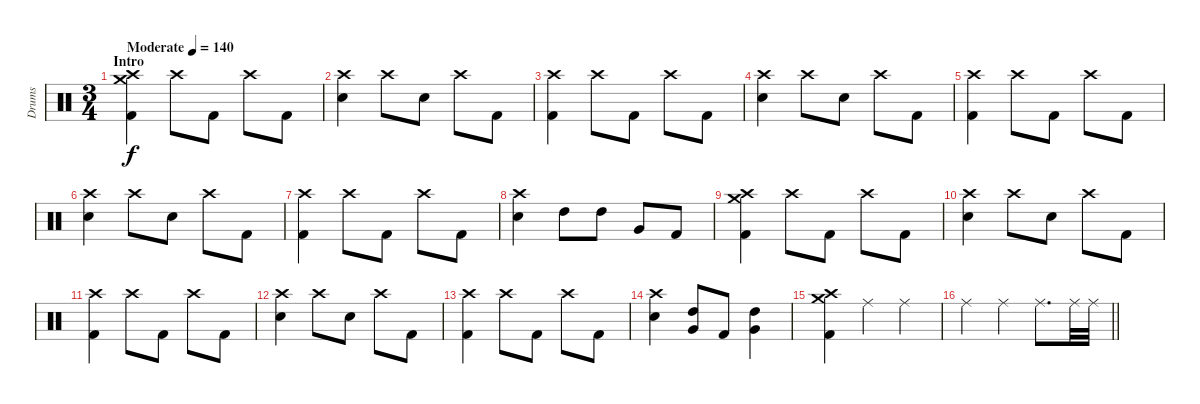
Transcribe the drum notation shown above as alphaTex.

\track ("Drums" "Drums") {instrument percussion}
\staff {score}
\articulation defaults
\ts (3 4)
\section ("" "Intro")
\tempo (140 "Moderate")
\clef neutral
\ks c
("Kick (hit) 2" "Crash high (hit)" "Crash medium (hit)").4{dy f} "Crash high (hit)".8 "Kick (hit) 2".8 "Crash high (hit)".8 "Kick (hit) 2".8 |
("Electric Snare (hit)" "Crash high (hit)").4 "Crash high (hit)".8 "Electric Snare (hit)".8 "Crash high (hit)".8 "Kick (hit) 2".8 |
("Kick (hit) 2" "Crash high (hit)").4 "Crash high (hit)".8 "Kick (hit) 2".8 "Crash high (hit)".8 "Kick (hit) 2".8 |
("Electric Snare (hit)" "Crash high (hit)").4 "Crash high (hit)".8 "Electric Snare (hit)".8 "Crash high (hit)".8 "Kick (hit) 2".8 |
("Kick (hit) 2" "Crash high (hit)").4 "Crash high (hit)".8 "Kick (hit) 2".8 "Crash high (hit)".8 "Kick (hit) 2".8 |
("Electric Snare (hit)" "Crash high (hit)").4 "Crash high (hit)".8 "Electric Snare (hit)".8 "Crash high (hit)".8 "Kick (hit) 2".8 |
("Kick (hit) 2" "Crash high (hit)").4 "Crash high (hit)".8 "Kick (hit) 2".8 "Crash high (hit)".8 "Kick (hit) 2".8 |
("Electric Snare (hit)" "Crash high (hit)").4 "High Tom (hit)".8 "High Tom (hit)".8 "Very Low Tom (hit)".8 "Kick (hit) 2".8 |
("Kick (hit) 2" "Crash high (hit)" "Crash medium (hit)").4 "Crash high (hit)".8 "Kick (hit) 2".8 "Crash high (hit)".8 "Kick (hit) 2".8 |
("Electric Snare (hit)" "Crash high (hit)").4 "Crash high (hit)".8 "Electric Snare (hit)".8 "Crash high (hit)".8 "Kick (hit) 2".8 |
("Kick (hit) 2" "Crash high (hit)").4 "Crash high (hit)".8 "Kick (hit) 2".8 "Crash high (hit)".8 "Kick (hit) 2".8 |
("Electric Snare (hit)" "Crash high (hit)").4 "Crash high (hit)".8 "Electric Snare (hit)".8 "Crash high (hit)".8 "Kick (hit) 2".8 |
("Kick (hit) 2" "Crash high (hit)").4 "Crash high (hit)".8 "Kick (hit) 2".8 "Crash high (hit)".8 "Kick (hit) 2".8 |
("Electric Snare (hit)" "Crash high (hit)").4 ("Very Low Tom (hit)" "High Tom (hit)").8 "Kick (hit) 2".8 ("Very Low Tom (hit)" "High Tom (hit)").4 |
("Kick (hit) 2" "Crash high (hit)" "Crash medium (hit)").4 "Ride (middle)".4 "Ride (middle)".4 |
\barLineRight lightlight "Ride (middle)".4 "Ride (middle)".4 "Ride (middle)".8{d} "Ride (middle)".32 "Ride (middle)".32
